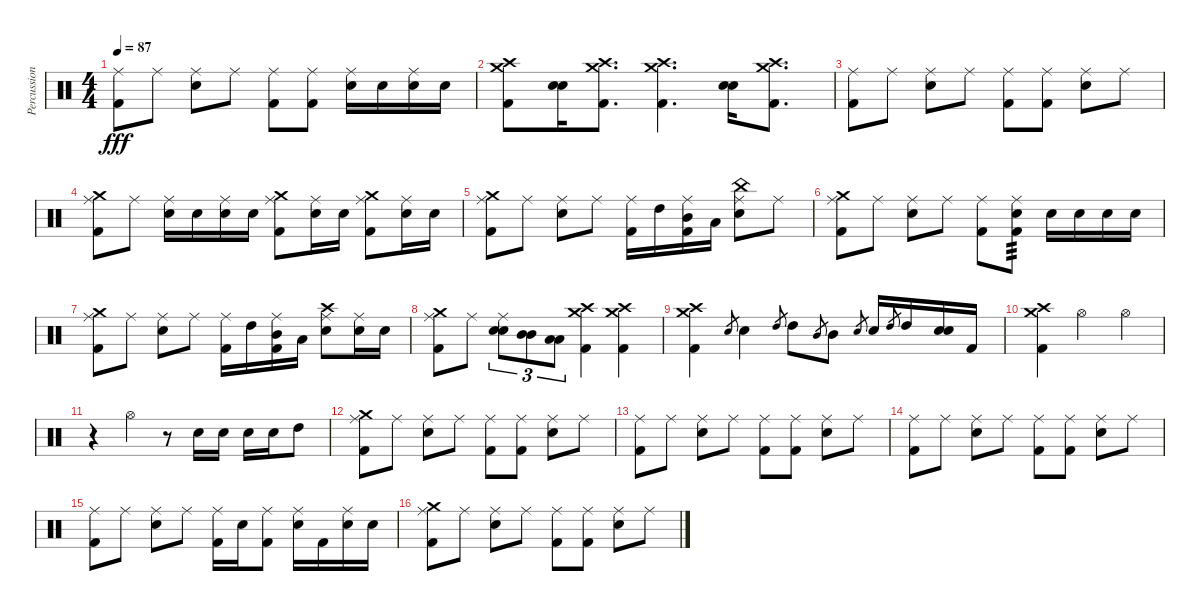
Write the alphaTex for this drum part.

\track ("Percussion" "Percussion") {instrument percussion}
\staff {score}
\articulation defaults
\ts (4 4)
\tempo 87
\clef neutral
\ks c
("Ride (middle)" "Kick (hit) 2").8{dy fff} "Ride (middle)".8 ("Ride (middle)" "Electric Snare (hit)").8 "Ride (middle)".8 ("Ride (middle)" "Kick (hit) 2").8 ("Ride (middle)" "Kick (hit) 2").8 ("Ride (middle)" "Electric Snare (hit)").16 "Electric Snare (hit)".16 ("Ride (middle)" "Electric Snare (hit)").16 "Electric Snare (hit)".16 |
("Crash high (hit)" "Crash medium (hit)" "Kick (hit) 2").8 ("Electric Snare (hit)" "Electric Snare (hit)").16 ("Crash high (hit)" "Crash medium (hit)" "Kick (hit) 2").8{d} ("Crash high (hit)" "Crash medium (hit)" "Kick (hit) 2").4{d} ("Electric Snare (hit)" "Electric Snare (hit)").16 ("Crash high (hit)" "Crash medium (hit)" "Kick (hit) 2").8{d} |
("Ride (middle)" "Kick (hit) 2").8 "Ride (middle)".8 ("Ride (middle)" "Electric Snare (hit)").8 "Ride (middle)".8 ("Ride (middle)" "Kick (hit) 2").8 ("Ride (middle)" "Kick (hit) 2").8 ("Ride (middle)" "Electric Snare (hit)").8 "Ride (middle)".8 |
("Ride (middle)" "Crash medium (hit)" "Kick (hit) 2").8 "Ride (middle)".8 ("Ride (middle)" "Electric Snare (hit)").16 "Electric Snare (hit)".16 ("Ride (middle)" "Electric Snare (hit)").16 "Electric Snare (hit)".16 ("Ride (middle)" "Crash medium (hit)" "Kick (hit) 2").8 ("Ride (middle)" "Electric Snare (hit)").16 "Electric Snare (hit)".16 ("Ride (middle)" "Crash medium (hit)" "Kick (hit) 2").8 ("Ride (middle)" "Electric Snare (hit)").16 "Electric Snare (hit)".16 |
("Ride (middle)" "Crash medium (hit)" "Kick (hit) 2").8 "Ride (middle)".8 ("Ride (middle)" "Electric Snare (hit)").8 "Ride (middle)".8 ("Ride (middle)" "Kick (hit) 2").16 "High Tom (hit)".16 ("Ride (middle)" "Mid Tom (hit)" "Kick (hit) 2").16 "Low Tom (hit)".16 ("Ride (middle)" "China (hit)" "Electric Snare (hit)").8 "Ride (middle)".8 |
("Ride (middle)" "Crash medium (hit)" "Kick (hit) 2").8 "Ride (middle)".8 ("Ride (middle)" "Electric Snare (hit)").8 "Ride (middle)".8 ("Ride (middle)" "Kick (hit) 2").8 ("Ride (middle)" "Electric Snare (hit)" "Kick (hit) 2").8{tp 3} "Electric Snare (hit)".16 "Electric Snare (hit)".16 "Electric Snare (hit)".16 "Electric Snare (hit)".16 |
("Ride (middle)" "Crash medium (hit)" "Kick (hit) 2").8 "Ride (middle)".8 ("Ride (middle)" "Electric Snare (hit)").8 "Ride (middle)".8 ("Ride (middle)" "Kick (hit) 2").16 "High Tom (hit)".16 ("Ride (middle)" "Mid Tom (hit)" "Kick (hit) 2").16 "Low Tom (hit)".16 ("Ride (middle)" "Crash high (hit)" "Electric Snare (hit)").8 ("Ride (middle)" "Electric Snare (hit)").16 "Electric Snare (hit)".16 |
("Ride (middle)" "Crash medium (hit)" "Kick (hit) 2").8 "Ride (middle)".8 ("Ride (middle)" "Electric Snare (hit)" "Electric Snare (hit)").8{tu (3 2)} ("Mid Tom (hit)" "Mid Tom (hit)").8{tu (3 2)} ("Low Tom (hit)" "Low Tom (hit)").8{tu (3 2)} ("Crash high (hit)" "Crash medium (hit)" "Kick (hit) 2").4 ("Crash high (hit)" "Crash medium (hit)" "Kick (hit) 2").4 |
("Crash high (hit)" "Crash medium (hit)" "Kick (hit) 2").4 "Electric Snare (hit)".8{gr} "Electric Snare (hit)".4 "High Tom (hit)".8{gr} "High Tom (hit)".8 "Mid Tom (hit)".8{gr} "Mid Tom (hit)".8 "Electric Snare (hit)".8{gr} "Electric Snare (hit)".16 "High Tom (hit)".8{gr} "High Tom (hit)".16 ("Electric Snare (hit)" "Electric Snare (hit)").16 "Kick (hit) 2".16 |
("Crash high (hit)" "Crash medium (hit)" "Kick (hit) 2").4 "Hi-Hat (open)".2 "Hi-Hat (open)".4 |
r.4 "Hi-Hat (open)".4 r.8 "Electric Snare (hit)".16 "Electric Snare (hit)".16 "Electric Snare (hit)".16 "Electric Snare (hit)".16 "High Tom (hit)".8 |
("Ride (middle)" "Crash medium (hit)" "Kick (hit) 2").8 "Ride (middle)".8 ("Ride (middle)" "Electric Snare (hit)").8 "Ride (middle)".8 ("Ride (middle)" "Kick (hit) 2").8 ("Ride (middle)" "Kick (hit) 2").8 ("Ride (middle)" "Electric Snare (hit)").8 "Ride (middle)".8 |
("Ride (middle)" "Kick (hit) 2").8 "Ride (middle)".8 ("Ride (middle)" "Electric Snare (hit)").8 "Ride (middle)".8 ("Ride (middle)" "Kick (hit) 2").8 ("Ride (middle)" "Kick (hit) 2").8 ("Ride (middle)" "Electric Snare (hit)").8 "Ride (middle)".8 |
("Ride (middle)" "Kick (hit) 2").8 "Ride (middle)".8 ("Ride (middle)" "Electric Snare (hit)").8 "Ride (middle)".8 ("Ride (middle)" "Kick (hit) 2").8 ("Ride (middle)" "Kick (hit) 2").8 ("Ride (middle)" "Electric Snare (hit)").8 "Ride (middle)".8 |
("Ride (middle)" "Kick (hit) 2").8 "Ride (middle)".8 ("Ride (middle)" "Electric Snare (hit)").8 "Ride (middle)".8 ("Ride (middle)" "Kick (hit) 2").16 "Electric Snare (hit)".16 ("Ride (middle)" "Kick (hit) 2").8 ("Ride (middle)" "Electric Snare (hit)").16 "Kick (hit) 2".16 ("Ride (middle)" "Electric Snare (hit)").16 "Electric Snare (hit)".16 |
("Ride (middle)" "Crash medium (hit)" "Kick (hit) 2").8 "Ride (middle)".8 ("Ride (middle)" "Electric Snare (hit)").8 "Ride (middle)".8 ("Ride (middle)" "Kick (hit) 2").8 ("Ride (middle)" "Kick (hit) 2").8 ("Ride (middle)" "Electric Snare (hit)").8 "Ride (middle)".8
